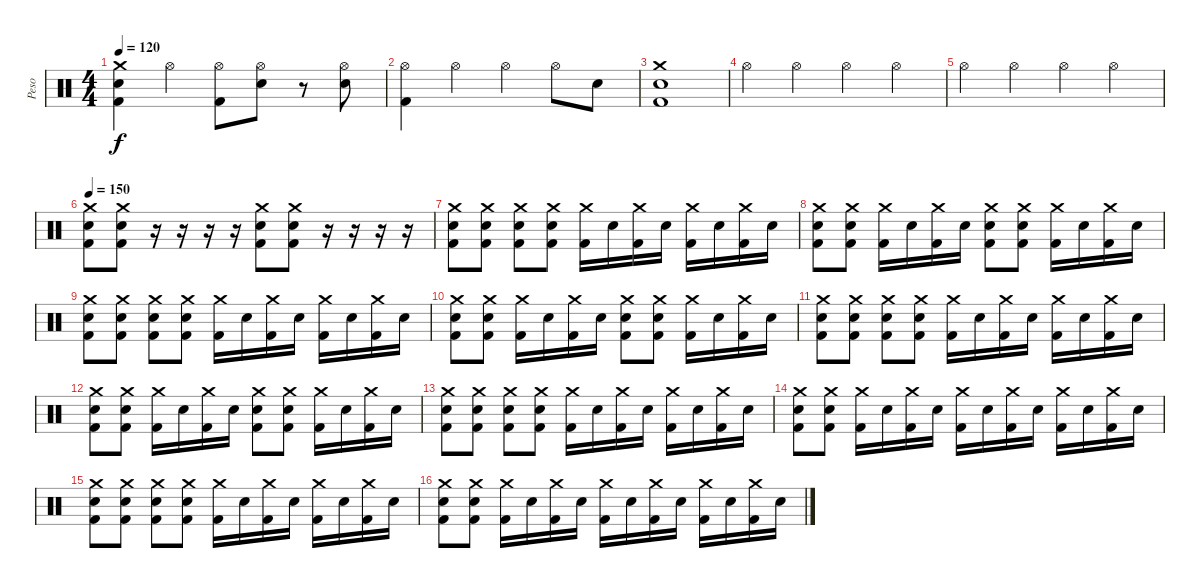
\track ("Peso" "Peso") {instrument percussion}
\staff {score}
\articulation defaults
\ts (4 4)
\tempo 120
\clef neutral
\ks c
("Crash medium (hit)" "Electric Snare (hit)" "Kick (hit) 2").4{dy f} "Hi-Hat (open)".4 ("Hi-Hat (open)" "Kick (hit) 2").8 ("Hi-Hat (open)" "Electric Snare (hit)").8 r.8 ("Hi-Hat (open)" "Electric Snare (hit)").8 |
("Hi-Hat (open)" "Kick (hit) 2").4 "Hi-Hat (open)".4 "Hi-Hat (open)".4 "Hi-Hat (open)".8 "Electric Snare (hit)".8 |
("Crash medium (hit)" "Electric Snare (hit)" "Kick (hit) 2").1 |
"Hi-Hat (open)".4 "Hi-Hat (open)".4 "Hi-Hat (open)".4 "Hi-Hat (open)".4 |
"Hi-Hat (open)".4 "Hi-Hat (open)".4 "Hi-Hat (open)".4 "Hi-Hat (open)".4 |
\tempo 150
("Crash medium (hit)" "Electric Snare (hit)" "Kick (hit) 2").8 ("Crash medium (hit)" "Electric Snare (hit)" "Kick (hit) 2").8 r.16 r.16 r.16 r.16 ("Crash medium (hit)" "Electric Snare (hit)" "Kick (hit) 2").8 ("Crash medium (hit)" "Electric Snare (hit)" "Kick (hit) 2").8 r.16 r.16 r.16 r.16 |
("Crash medium (hit)" "Electric Snare (hit)" "Kick (hit) 2").8 ("Crash medium (hit)" "Electric Snare (hit)" "Kick (hit) 2").8 ("Crash medium (hit)" "Electric Snare (hit)" "Kick (hit) 2").8 ("Crash medium (hit)" "Electric Snare (hit)" "Kick (hit) 2").8 ("Crash medium (hit)" "Kick (hit) 2").16 "Electric Snare (hit)".16 ("Crash medium (hit)" "Kick (hit) 2").16 "Electric Snare (hit)".16 ("Crash medium (hit)" "Kick (hit) 2").16 "Electric Snare (hit)".16 ("Crash medium (hit)" "Kick (hit) 2").16 "Electric Snare (hit)".16 |
("Crash medium (hit)" "Electric Snare (hit)" "Kick (hit) 2").8 ("Crash medium (hit)" "Electric Snare (hit)" "Kick (hit) 2").8 ("Crash medium (hit)" "Kick (hit) 2").16 "Electric Snare (hit)".16 ("Crash medium (hit)" "Kick (hit) 2").16 "Electric Snare (hit)".16 ("Crash medium (hit)" "Electric Snare (hit)" "Kick (hit) 2").8 ("Crash medium (hit)" "Electric Snare (hit)" "Kick (hit) 2").8 ("Crash medium (hit)" "Kick (hit) 2").16 "Electric Snare (hit)".16 ("Crash medium (hit)" "Kick (hit) 2").16 "Electric Snare (hit)".16 |
("Crash medium (hit)" "Electric Snare (hit)" "Kick (hit) 2").8 ("Crash medium (hit)" "Electric Snare (hit)" "Kick (hit) 2").8 ("Crash medium (hit)" "Electric Snare (hit)" "Kick (hit) 2").8 ("Crash medium (hit)" "Electric Snare (hit)" "Kick (hit) 2").8 ("Crash medium (hit)" "Kick (hit) 2").16 "Electric Snare (hit)".16 ("Crash medium (hit)" "Kick (hit) 2").16 "Electric Snare (hit)".16 ("Crash medium (hit)" "Kick (hit) 2").16 "Electric Snare (hit)".16 ("Crash medium (hit)" "Kick (hit) 2").16 "Electric Snare (hit)".16 |
("Crash medium (hit)" "Electric Snare (hit)" "Kick (hit) 2").8 ("Crash medium (hit)" "Electric Snare (hit)" "Kick (hit) 2").8 ("Crash medium (hit)" "Kick (hit) 2").16 "Electric Snare (hit)".16 ("Crash medium (hit)" "Kick (hit) 2").16 "Electric Snare (hit)".16 ("Crash medium (hit)" "Electric Snare (hit)" "Kick (hit) 2").8 ("Crash medium (hit)" "Electric Snare (hit)" "Kick (hit) 2").8 ("Crash medium (hit)" "Kick (hit) 2").16 "Electric Snare (hit)".16 ("Crash medium (hit)" "Kick (hit) 2").16 "Electric Snare (hit)".16 |
("Crash medium (hit)" "Electric Snare (hit)" "Kick (hit) 2").8 ("Crash medium (hit)" "Electric Snare (hit)" "Kick (hit) 2").8 ("Crash medium (hit)" "Electric Snare (hit)" "Kick (hit) 2").8 ("Crash medium (hit)" "Electric Snare (hit)" "Kick (hit) 2").8 ("Crash medium (hit)" "Kick (hit) 2").16 "Electric Snare (hit)".16 ("Crash medium (hit)" "Kick (hit) 2").16 "Electric Snare (hit)".16 ("Crash medium (hit)" "Kick (hit) 2").16 "Electric Snare (hit)".16 ("Crash medium (hit)" "Kick (hit) 2").16 "Electric Snare (hit)".16 |
("Crash medium (hit)" "Electric Snare (hit)" "Kick (hit) 2").8 ("Crash medium (hit)" "Electric Snare (hit)" "Kick (hit) 2").8 ("Crash medium (hit)" "Kick (hit) 2").16 "Electric Snare (hit)".16 ("Crash medium (hit)" "Kick (hit) 2").16 "Electric Snare (hit)".16 ("Crash medium (hit)" "Electric Snare (hit)" "Kick (hit) 2").8 ("Crash medium (hit)" "Electric Snare (hit)" "Kick (hit) 2").8 ("Crash medium (hit)" "Kick (hit) 2").16 "Electric Snare (hit)".16 ("Crash medium (hit)" "Kick (hit) 2").16 "Electric Snare (hit)".16 |
("Crash medium (hit)" "Electric Snare (hit)" "Kick (hit) 2").8 ("Crash medium (hit)" "Electric Snare (hit)" "Kick (hit) 2").8 ("Crash medium (hit)" "Electric Snare (hit)" "Kick (hit) 2").8 ("Crash medium (hit)" "Electric Snare (hit)" "Kick (hit) 2").8 ("Crash medium (hit)" "Kick (hit) 2").16 "Electric Snare (hit)".16 ("Crash medium (hit)" "Kick (hit) 2").16 "Electric Snare (hit)".16 ("Crash medium (hit)" "Kick (hit) 2").16 "Electric Snare (hit)".16 ("Crash medium (hit)" "Kick (hit) 2").16 "Electric Snare (hit)".16 |
("Crash medium (hit)" "Electric Snare (hit)" "Kick (hit) 2").8 ("Crash medium (hit)" "Electric Snare (hit)" "Kick (hit) 2").8 ("Crash medium (hit)" "Kick (hit) 2").16 "Electric Snare (hit)".16 ("Crash medium (hit)" "Kick (hit) 2").16 "Electric Snare (hit)".16 ("Crash medium (hit)" "Kick (hit) 2").16 "Electric Snare (hit)".16 ("Crash medium (hit)" "Kick (hit) 2").16 "Electric Snare (hit)".16 ("Crash medium (hit)" "Kick (hit) 2").16 "Electric Snare (hit)".16 ("Crash medium (hit)" "Kick (hit) 2").16 "Electric Snare (hit)".16 |
("Crash medium (hit)" "Electric Snare (hit)" "Kick (hit) 2").8 ("Crash medium (hit)" "Electric Snare (hit)" "Kick (hit) 2").8 ("Crash medium (hit)" "Electric Snare (hit)" "Kick (hit) 2").8 ("Crash medium (hit)" "Electric Snare (hit)" "Kick (hit) 2").8 ("Crash medium (hit)" "Kick (hit) 2").16 "Electric Snare (hit)".16 ("Crash medium (hit)" "Kick (hit) 2").16 "Electric Snare (hit)".16 ("Crash medium (hit)" "Kick (hit) 2").16 "Electric Snare (hit)".16 ("Crash medium (hit)" "Kick (hit) 2").16 "Electric Snare (hit)".16 |
("Crash medium (hit)" "Electric Snare (hit)" "Kick (hit) 2").8 ("Crash medium (hit)" "Electric Snare (hit)" "Kick (hit) 2").8 ("Crash medium (hit)" "Kick (hit) 2").16 "Electric Snare (hit)".16 ("Crash medium (hit)" "Kick (hit) 2").16 "Electric Snare (hit)".16 ("Crash medium (hit)" "Kick (hit) 2").16 "Electric Snare (hit)".16 ("Crash medium (hit)" "Kick (hit) 2").16 "Electric Snare (hit)".16 ("Crash medium (hit)" "Kick (hit) 2").16 "Electric Snare (hit)".16 ("Crash medium (hit)" "Kick (hit) 2").16 "Electric Snare (hit)".16
